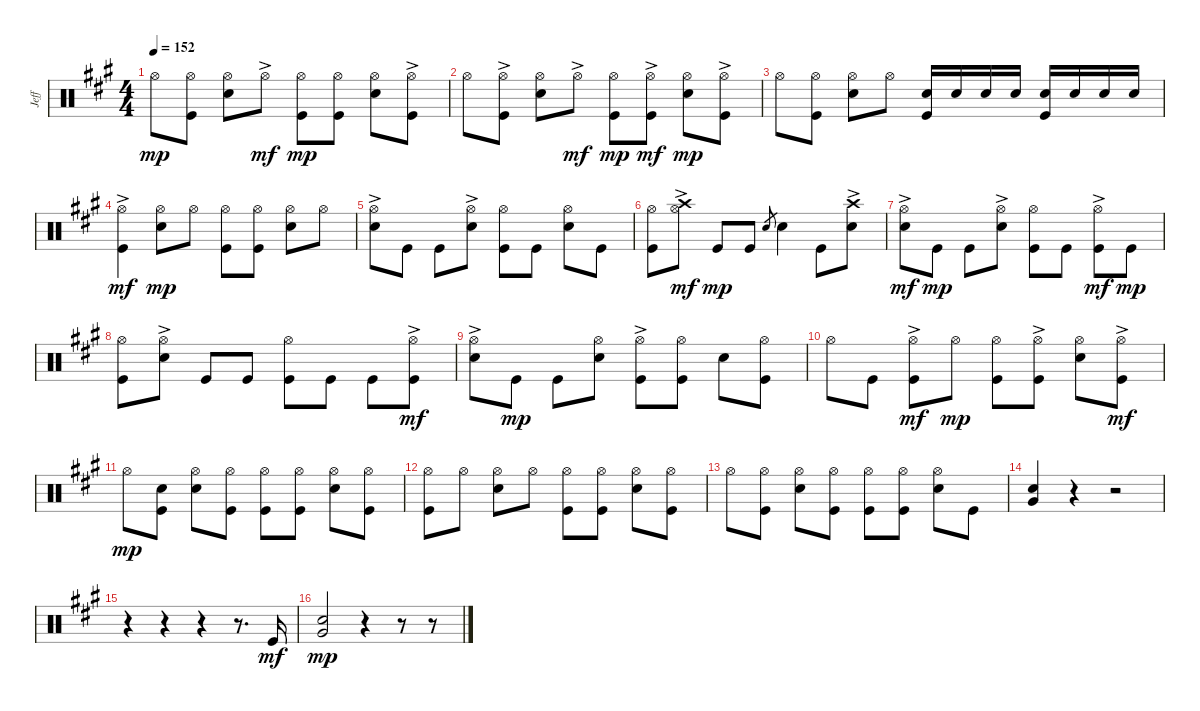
\track ("Jeff" "Jeff") {instrument percussion}
\staff {score}
\articulation defaults
\ts (4 4)
\tempo 152
\clef neutral
\ks a "Hi-Hat (open)".8{dy mp}
("Hi-Hat (open)" "Kick (hit)").8 ("Hi-Hat (open)" "Snare (hit) 2").8 "Hi-Hat (open)"{ac}.8{dy mf} ("Hi-Hat (open)" "Kick (hit)").8{dy mp} ("Hi-Hat (open)" "Kick (hit)").8 ("Hi-Hat (open)" "Snare (hit) 2").8 ("Hi-Hat (open)"{ac} "Kick (hit)").8 |
"Hi-Hat (open)".8 ("Hi-Hat (open)"{ac} "Kick (hit)").8 ("Hi-Hat (open)" "Snare (hit) 2").8 "Hi-Hat (open)"{ac}.8{dy mf} ("Hi-Hat (open)" "Kick (hit)").8{dy mp} ("Hi-Hat (open)" "Kick (hit)"{ac}).8{dy mf} ("Hi-Hat (open)" "Snare (hit) 2").8{dy mp} ("Hi-Hat (open)"{ac} "Kick (hit)").8 |
"Hi-Hat (open)".8 ("Hi-Hat (open)" "Kick (hit)").8 ("Hi-Hat (open)" "Snare (hit) 2").8 "Hi-Hat (open)".8 ("Snare (hit) 2" "Kick (hit)").16 "Snare (hit) 2".16 "Snare (hit) 2".16 "Snare (hit) 2".16 ("Snare (hit) 2" "Kick (hit)").16 "Snare (hit) 2".16 "Snare (hit) 2".16 "Snare (hit) 2".16 |
("Hi-Hat (open)" "Kick (hit)"{ac}).4{dy mf} ("Hi-Hat (open)" "Snare (hit) 2").8{dy mp} "Hi-Hat (open)".8 ("Hi-Hat (open)" "Kick (hit)").8 ("Hi-Hat (open)" "Kick (hit)").8 ("Hi-Hat (open)" "Snare (hit) 2").8 "Hi-Hat (open)".8 |
("Hi-Hat (open)"{ac} "Snare (hit) 2").8 "Kick (hit)".8 "Kick (hit)".8 ("Hi-Hat (open)"{ac} "Snare (hit) 2").8 ("Hi-Hat (open)" "Kick (hit)").8 "Kick (hit)".8 ("Hi-Hat (open)" "Snare (hit) 2").8 "Kick (hit)".8 |
("Hi-Hat (open)" "Kick (hit)").8 ("Hi-Hat (open)" "Crash high (hit)"{ac}).8{dy mf} "Kick (hit)".8{dy mp} "Kick (hit)".8 "Snare (hit) 2"{sl}.8{gr} "Snare (hit) 2".4 "Kick (hit)".8 ("Crash high (hit)"{ac} "Snare (hit) 2").8 |
("Hi-Hat (open)" "Snare (hit) 2"{ac}).8{dy mf} "Kick (hit)".8{dy mp} "Kick (hit)".8 ("Hi-Hat (open)"{ac} "Snare (hit) 2").8 ("Hi-Hat (open)" "Kick (hit)").8 "Kick (hit)".8 ("Hi-Hat (open)" "Kick (hit)"{ac}).8{dy mf} "Kick (hit)".8{dy mp} |
("Hi-Hat (open)" "Kick (hit)").8 ("Hi-Hat (open)"{ac} "Snare (hit) 2").8 "Kick (hit)".8 "Kick (hit)".8 ("Hi-Hat (open)" "Kick (hit)").8 "Kick (hit)".8 "Kick (hit)".8 ("Hi-Hat (open)" "Kick (hit)"{ac}).8{dy mf} |
("Hi-Hat (open)" "Snare (hit) 2"{ac}).8 "Kick (hit)".8{dy mp} "Kick (hit)".8 ("Hi-Hat (open)" "Snare (hit) 2").8 ("Hi-Hat (open)"{ac} "Kick (hit)").8 ("Hi-Hat (open)" "Kick (hit)").8 "Snare (hit) 2".8 ("Hi-Hat (open)" "Kick (hit)").8 |
"Hi-Hat (open)".8 "Kick (hit)".8 ("Hi-Hat (open)" "Kick (hit)"{ac}).8{dy mf} "Hi-Hat (open)".8{dy mp} ("Hi-Hat (open)" "Kick (hit)").8 ("Hi-Hat (open)"{ac} "Kick (hit)").8 ("Hi-Hat (open)" "Snare (hit) 2").8 ("Hi-Hat (open)" "Kick (hit)"{ac}).8{dy mf} |
"Hi-Hat (open)".8{dy mp} ("Snare (hit)" "Kick (hit)").8 ("Hi-Hat (open)" "Snare (hit) 2").8 ("Hi-Hat (open)" "Kick (hit)").8 ("Hi-Hat (open)" "Kick (hit)").8 ("Hi-Hat (open)" "Kick (hit)").8 ("Hi-Hat (open)" "Snare (hit) 2").8 ("Hi-Hat (open)" "Kick (hit)").8 |
("Hi-Hat (open)" "Kick (hit)").8 "Hi-Hat (open)".8 ("Hi-Hat (open)" "Snare (hit) 2").8 "Hi-Hat (open)".8 ("Hi-Hat (open)" "Kick (hit)").8 ("Hi-Hat (open)" "Kick (hit)").8 ("Hi-Hat (open)" "Snare (hit) 2").8 ("Hi-Hat (open)" "Kick (hit)").8 |
"Hi-Hat (open)".8 ("Hi-Hat (open)" "Kick (hit)").8 ("Hi-Hat (open)" "Snare (hit) 2").8 ("Hi-Hat (open)" "Kick (hit)").8 ("Hi-Hat (open)" "Kick (hit)").8 ("Hi-Hat (open)" "Kick (hit)").8 ("Hi-Hat (open)" "Snare (hit) 2").8 "Kick (hit)".8 |
("Very Low Tom (hit)" "Snare (hit) 2").4 r.4 r.2 |
r.4 r.4 r.4 r.8{d} "Kick (hit)".16{dy mf} |
("Snare (hit) 2" "Very Low Tom (hit)").2{dy mp} r.4 r.8 r.8
